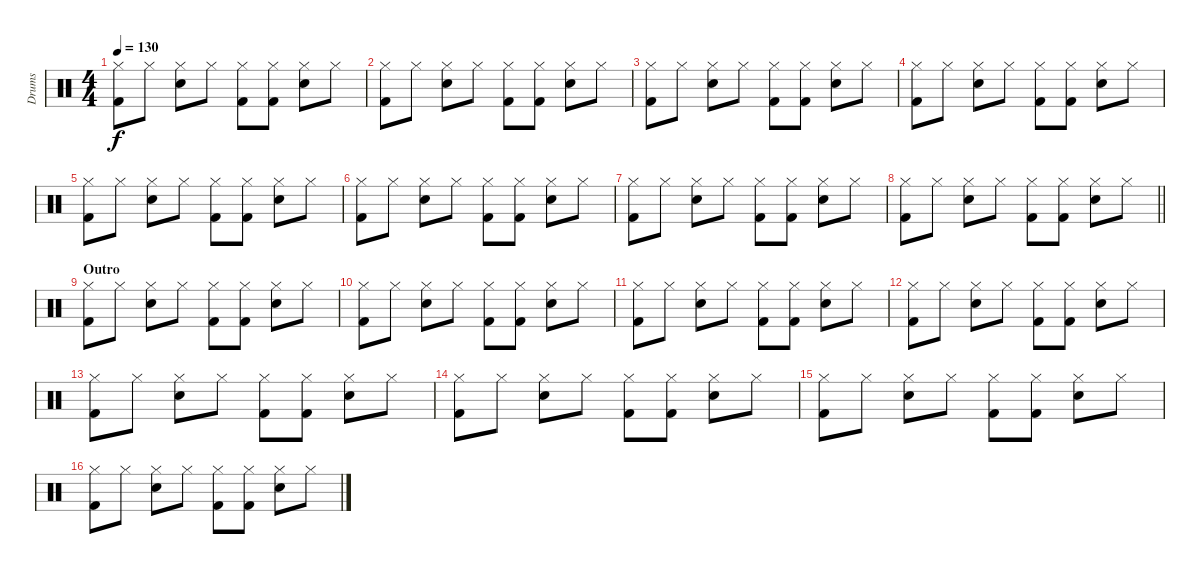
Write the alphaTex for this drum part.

\track ("Drums" "Drums") {instrument percussion}
\staff {score}
\articulation defaults
\ts (4 4)
\tempo 130
\clef neutral
\ks c
("Hi-Hat (closed)" "Kick (hit) 2").8{dy f} "Hi-Hat (closed)".8 ("Hi-Hat (closed)" "Snare (hit) 2").8 "Hi-Hat (closed)".8 ("Hi-Hat (closed)" "Kick (hit) 2").8 ("Hi-Hat (closed)" "Kick (hit) 2").8 ("Hi-Hat (closed)" "Snare (hit) 2").8 "Hi-Hat (closed)".8 |
("Hi-Hat (closed)" "Kick (hit) 2").8 "Hi-Hat (closed)".8 ("Hi-Hat (closed)" "Snare (hit) 2").8 "Hi-Hat (closed)".8 ("Hi-Hat (closed)" "Kick (hit) 2").8 ("Hi-Hat (closed)" "Kick (hit) 2").8 ("Hi-Hat (closed)" "Snare (hit) 2").8 "Hi-Hat (closed)".8 |
("Hi-Hat (closed)" "Kick (hit) 2").8 "Hi-Hat (closed)".8 ("Hi-Hat (closed)" "Snare (hit) 2").8 "Hi-Hat (closed)".8 ("Hi-Hat (closed)" "Kick (hit) 2").8 ("Hi-Hat (closed)" "Kick (hit) 2").8 ("Hi-Hat (closed)" "Snare (hit) 2").8 "Hi-Hat (closed)".8 |
("Hi-Hat (closed)" "Kick (hit) 2").8 "Hi-Hat (closed)".8 ("Hi-Hat (closed)" "Snare (hit) 2").8 "Hi-Hat (closed)".8 ("Hi-Hat (closed)" "Kick (hit) 2").8 ("Hi-Hat (closed)" "Kick (hit) 2").8 ("Hi-Hat (closed)" "Snare (hit) 2").8 "Hi-Hat (closed)".8 |
("Hi-Hat (closed)" "Kick (hit) 2").8 "Hi-Hat (closed)".8 ("Hi-Hat (closed)" "Snare (hit) 2").8 "Hi-Hat (closed)".8 ("Hi-Hat (closed)" "Kick (hit) 2").8 ("Hi-Hat (closed)" "Kick (hit) 2").8 ("Hi-Hat (closed)" "Snare (hit) 2").8 "Hi-Hat (closed)".8 |
("Hi-Hat (closed)" "Kick (hit) 2").8 "Hi-Hat (closed)".8 ("Hi-Hat (closed)" "Snare (hit) 2").8 "Hi-Hat (closed)".8 ("Hi-Hat (closed)" "Kick (hit) 2").8 ("Hi-Hat (closed)" "Kick (hit) 2").8 ("Hi-Hat (closed)" "Snare (hit) 2").8 "Hi-Hat (closed)".8 |
("Hi-Hat (closed)" "Kick (hit) 2").8 "Hi-Hat (closed)".8 ("Hi-Hat (closed)" "Snare (hit) 2").8 "Hi-Hat (closed)".8 ("Hi-Hat (closed)" "Kick (hit) 2").8 ("Hi-Hat (closed)" "Kick (hit) 2").8 ("Hi-Hat (closed)" "Snare (hit) 2").8 "Hi-Hat (closed)".8 |
\barLineRight lightlight
("Hi-Hat (closed)" "Kick (hit) 2").8 "Hi-Hat (closed)".8 ("Hi-Hat (closed)" "Snare (hit) 2").8 "Hi-Hat (closed)".8 ("Hi-Hat (closed)" "Kick (hit) 2").8 ("Hi-Hat (closed)" "Kick (hit) 2").8 ("Hi-Hat (closed)" "Snare (hit) 2").8 "Hi-Hat (closed)".8 |
\section ("" "Outro")
("Hi-Hat (closed)" "Kick (hit) 2").8 "Hi-Hat (closed)".8 ("Hi-Hat (closed)" "Snare (hit) 2").8 "Hi-Hat (closed)".8 ("Hi-Hat (closed)" "Kick (hit) 2").8 ("Hi-Hat (closed)" "Kick (hit) 2").8 ("Hi-Hat (closed)" "Snare (hit) 2").8 "Hi-Hat (closed)".8 |
("Hi-Hat (closed)" "Kick (hit) 2").8 "Hi-Hat (closed)".8 ("Hi-Hat (closed)" "Snare (hit) 2").8 "Hi-Hat (closed)".8 ("Hi-Hat (closed)" "Kick (hit) 2").8 ("Hi-Hat (closed)" "Kick (hit) 2").8 ("Hi-Hat (closed)" "Snare (hit) 2").8 "Hi-Hat (closed)".8 |
("Hi-Hat (closed)" "Kick (hit) 2").8 "Hi-Hat (closed)".8 ("Hi-Hat (closed)" "Snare (hit) 2").8 "Hi-Hat (closed)".8 ("Hi-Hat (closed)" "Kick (hit) 2").8 ("Hi-Hat (closed)" "Kick (hit) 2").8 ("Hi-Hat (closed)" "Snare (hit) 2").8 "Hi-Hat (closed)".8 |
("Hi-Hat (closed)" "Kick (hit) 2").8 "Hi-Hat (closed)".8 ("Hi-Hat (closed)" "Snare (hit) 2").8 "Hi-Hat (closed)".8 ("Hi-Hat (closed)" "Kick (hit) 2").8 ("Hi-Hat (closed)" "Kick (hit) 2").8 ("Hi-Hat (closed)" "Snare (hit) 2").8 "Hi-Hat (closed)".8 |
("Hi-Hat (closed)" "Kick (hit) 2").8 "Hi-Hat (closed)".8 ("Hi-Hat (closed)" "Snare (hit) 2").8 "Hi-Hat (closed)".8 ("Hi-Hat (closed)" "Kick (hit) 2").8 ("Hi-Hat (closed)" "Kick (hit) 2").8 ("Hi-Hat (closed)" "Snare (hit) 2").8 "Hi-Hat (closed)".8 |
("Hi-Hat (closed)" "Kick (hit) 2").8 "Hi-Hat (closed)".8 ("Hi-Hat (closed)" "Snare (hit) 2").8 "Hi-Hat (closed)".8 ("Hi-Hat (closed)" "Kick (hit) 2").8 ("Hi-Hat (closed)" "Kick (hit) 2").8 ("Hi-Hat (closed)" "Snare (hit) 2").8 "Hi-Hat (closed)".8 |
("Hi-Hat (closed)" "Kick (hit) 2").8 "Hi-Hat (closed)".8 ("Hi-Hat (closed)" "Snare (hit) 2").8 "Hi-Hat (closed)".8 ("Hi-Hat (closed)" "Kick (hit) 2").8 ("Hi-Hat (closed)" "Kick (hit) 2").8 ("Hi-Hat (closed)" "Snare (hit) 2").8 "Hi-Hat (closed)".8 |
("Hi-Hat (closed)" "Kick (hit) 2").8 "Hi-Hat (closed)".8 ("Hi-Hat (closed)" "Snare (hit) 2").8 "Hi-Hat (closed)".8 ("Hi-Hat (closed)" "Kick (hit) 2").8 ("Hi-Hat (closed)" "Kick (hit) 2").8 ("Hi-Hat (closed)" "Snare (hit) 2").8 "Hi-Hat (closed)".8
